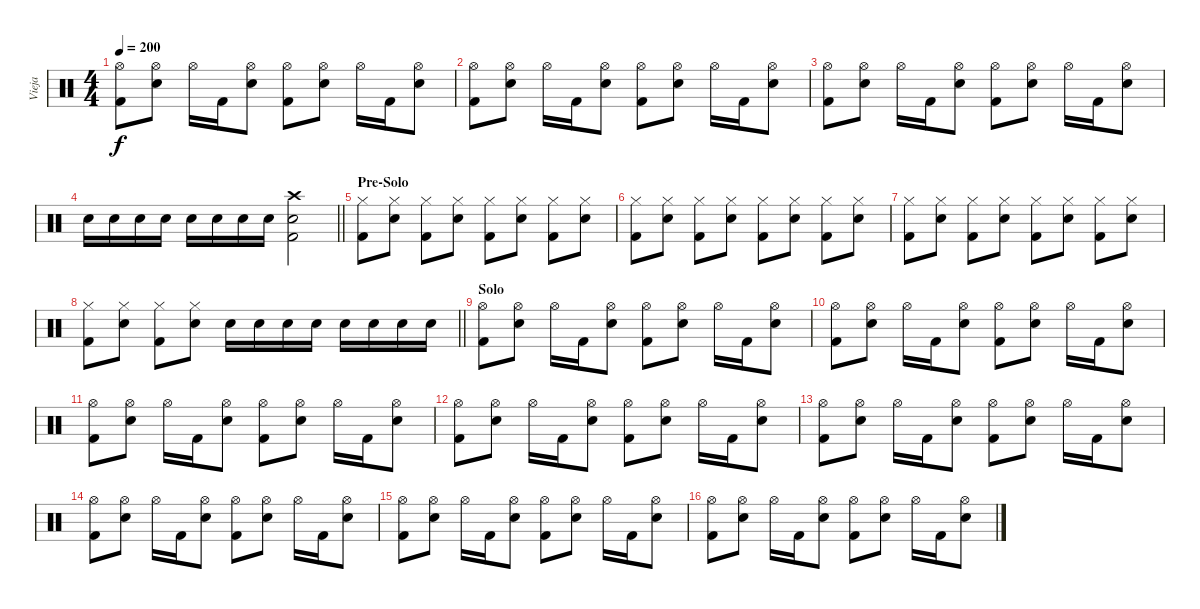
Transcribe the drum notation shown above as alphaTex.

\track ("Vieja" "Vieja") {instrument percussion}
\staff {score}
\articulation defaults
\ts (4 4)
\tempo 200
\clef neutral
\ks c
("Hi-Hat (open)" "Kick (hit) 2").8{dy f} ("Hi-Hat (open)" "Electric Snare (hit)").8 "Hi-Hat (open)".16 "Kick (hit) 2".16 ("Hi-Hat (open)" "Electric Snare (hit)").8 ("Hi-Hat (open)" "Kick (hit) 2").8 ("Hi-Hat (open)" "Electric Snare (hit)").8 "Hi-Hat (open)".16 "Kick (hit) 2".16 ("Hi-Hat (open)" "Electric Snare (hit)").8 |
("Hi-Hat (open)" "Kick (hit) 2").8 ("Hi-Hat (open)" "Electric Snare (hit)").8 "Hi-Hat (open)".16 "Kick (hit) 2".16 ("Hi-Hat (open)" "Electric Snare (hit)").8 ("Hi-Hat (open)" "Kick (hit) 2").8 ("Hi-Hat (open)" "Electric Snare (hit)").8 "Hi-Hat (open)".16 "Kick (hit) 2".16 ("Hi-Hat (open)" "Electric Snare (hit)").8 |
("Hi-Hat (open)" "Kick (hit) 2").8 ("Hi-Hat (open)" "Electric Snare (hit)").8 "Hi-Hat (open)".16 "Kick (hit) 2".16 ("Hi-Hat (open)" "Electric Snare (hit)").8 ("Hi-Hat (open)" "Kick (hit) 2").8 ("Hi-Hat (open)" "Electric Snare (hit)").8 "Hi-Hat (open)".16 "Kick (hit) 2".16 ("Hi-Hat (open)" "Electric Snare (hit)").8 |
\barLineRight lightlight "Electric Snare (hit)".16 "Electric Snare (hit)".16 "Electric Snare (hit)".16 "Electric Snare (hit)".16 "Electric Snare (hit)".16 "Electric Snare (hit)".16 "Electric Snare (hit)".16 "Electric Snare (hit)".16
("Crash high (hit)" "Electric Snare (hit)" "Kick (hit) 2").2 |
\section ("" "Pre-Solo")
("Hi-Hat (closed)" "Kick (hit) 2").8 ("Hi-Hat (closed)" "Electric Snare (hit)").8 ("Hi-Hat (closed)" "Kick (hit) 2").8 ("Hi-Hat (closed)" "Electric Snare (hit)").8 ("Hi-Hat (closed)" "Kick (hit) 2").8 ("Hi-Hat (closed)" "Electric Snare (hit)").8 ("Hi-Hat (closed)" "Kick (hit) 2").8 ("Hi-Hat (closed)" "Electric Snare (hit)").8 |
("Hi-Hat (closed)" "Kick (hit) 2").8 ("Hi-Hat (closed)" "Electric Snare (hit)").8 ("Hi-Hat (closed)" "Kick (hit) 2").8 ("Hi-Hat (closed)" "Electric Snare (hit)").8 ("Hi-Hat (closed)" "Kick (hit) 2").8 ("Hi-Hat (closed)" "Electric Snare (hit)").8 ("Hi-Hat (closed)" "Kick (hit) 2").8 ("Hi-Hat (closed)" "Electric Snare (hit)").8 |
("Hi-Hat (closed)" "Kick (hit) 2").8 ("Hi-Hat (closed)" "Electric Snare (hit)").8 ("Hi-Hat (closed)" "Kick (hit) 2").8 ("Hi-Hat (closed)" "Electric Snare (hit)").8 ("Hi-Hat (closed)" "Kick (hit) 2").8 ("Hi-Hat (closed)" "Electric Snare (hit)").8 ("Hi-Hat (closed)" "Kick (hit) 2").8 ("Hi-Hat (closed)" "Electric Snare (hit)").8 |
\barLineRight lightlight
("Hi-Hat (closed)" "Kick (hit) 2").8 ("Hi-Hat (closed)" "Electric Snare (hit)").8 ("Hi-Hat (closed)" "Kick (hit) 2").8 ("Hi-Hat (closed)" "Electric Snare (hit)").8 "Electric Snare (hit)".16 "Electric Snare (hit)".16 "Electric Snare (hit)".16 "Electric Snare (hit)".16 "Electric Snare (hit)".16 "Electric Snare (hit)".16 "Electric Snare (hit)".16 "Electric Snare (hit)".16 |
\section ("" "Solo ")
("Hi-Hat (open)" "Kick (hit) 2").8 ("Hi-Hat (open)" "Electric Snare (hit)").8 "Hi-Hat (open)".16 "Kick (hit) 2".16 ("Hi-Hat (open)" "Electric Snare (hit)").8 ("Hi-Hat (open)" "Kick (hit) 2").8 ("Hi-Hat (open)" "Electric Snare (hit)").8 "Hi-Hat (open)".16 "Kick (hit) 2".16 ("Hi-Hat (open)" "Electric Snare (hit)").8 |
("Hi-Hat (open)" "Kick (hit) 2").8 ("Hi-Hat (open)" "Electric Snare (hit)").8 "Hi-Hat (open)".16 "Kick (hit) 2".16 ("Hi-Hat (open)" "Electric Snare (hit)").8 ("Hi-Hat (open)" "Kick (hit) 2").8 ("Hi-Hat (open)" "Electric Snare (hit)").8 "Hi-Hat (open)".16 "Kick (hit) 2".16 ("Hi-Hat (open)" "Electric Snare (hit)").8 |
("Hi-Hat (open)" "Kick (hit) 2").8 ("Hi-Hat (open)" "Electric Snare (hit)").8 "Hi-Hat (open)".16 "Kick (hit) 2".16 ("Hi-Hat (open)" "Electric Snare (hit)").8 ("Hi-Hat (open)" "Kick (hit) 2").8 ("Hi-Hat (open)" "Electric Snare (hit)").8 "Hi-Hat (open)".16 "Kick (hit) 2".16 ("Hi-Hat (open)" "Electric Snare (hit)").8 |
("Hi-Hat (open)" "Kick (hit) 2").8 ("Hi-Hat (open)" "Electric Snare (hit)").8 "Hi-Hat (open)".16 "Kick (hit) 2".16 ("Hi-Hat (open)" "Electric Snare (hit)").8 ("Hi-Hat (open)" "Kick (hit) 2").8 ("Hi-Hat (open)" "Electric Snare (hit)").8 "Hi-Hat (open)".16 "Kick (hit) 2".16 ("Hi-Hat (open)" "Electric Snare (hit)").8 |
("Hi-Hat (open)" "Kick (hit) 2").8 ("Hi-Hat (open)" "Electric Snare (hit)").8 "Hi-Hat (open)".16 "Kick (hit) 2".16 ("Hi-Hat (open)" "Electric Snare (hit)").8 ("Hi-Hat (open)" "Kick (hit) 2").8 ("Hi-Hat (open)" "Electric Snare (hit)").8 "Hi-Hat (open)".16 "Kick (hit) 2".16 ("Hi-Hat (open)" "Electric Snare (hit)").8 |
("Hi-Hat (open)" "Kick (hit) 2").8 ("Hi-Hat (open)" "Electric Snare (hit)").8 "Hi-Hat (open)".16 "Kick (hit) 2".16 ("Hi-Hat (open)" "Electric Snare (hit)").8 ("Hi-Hat (open)" "Kick (hit) 2").8 ("Hi-Hat (open)" "Electric Snare (hit)").8 "Hi-Hat (open)".16 "Kick (hit) 2".16 ("Hi-Hat (open)" "Electric Snare (hit)").8 |
("Hi-Hat (open)" "Kick (hit) 2").8 ("Hi-Hat (open)" "Electric Snare (hit)").8 "Hi-Hat (open)".16 "Kick (hit) 2".16 ("Hi-Hat (open)" "Electric Snare (hit)").8 ("Hi-Hat (open)" "Kick (hit) 2").8 ("Hi-Hat (open)" "Electric Snare (hit)").8 "Hi-Hat (open)".16 "Kick (hit) 2".16 ("Hi-Hat (open)" "Electric Snare (hit)").8 |
("Hi-Hat (open)" "Kick (hit) 2").8 ("Hi-Hat (open)" "Electric Snare (hit)").8 "Hi-Hat (open)".16 "Kick (hit) 2".16 ("Hi-Hat (open)" "Electric Snare (hit)").8 ("Hi-Hat (open)" "Kick (hit) 2").8 ("Hi-Hat (open)" "Electric Snare (hit)").8 "Hi-Hat (open)".16 "Kick (hit) 2".16 ("Hi-Hat (open)" "Electric Snare (hit)").8
